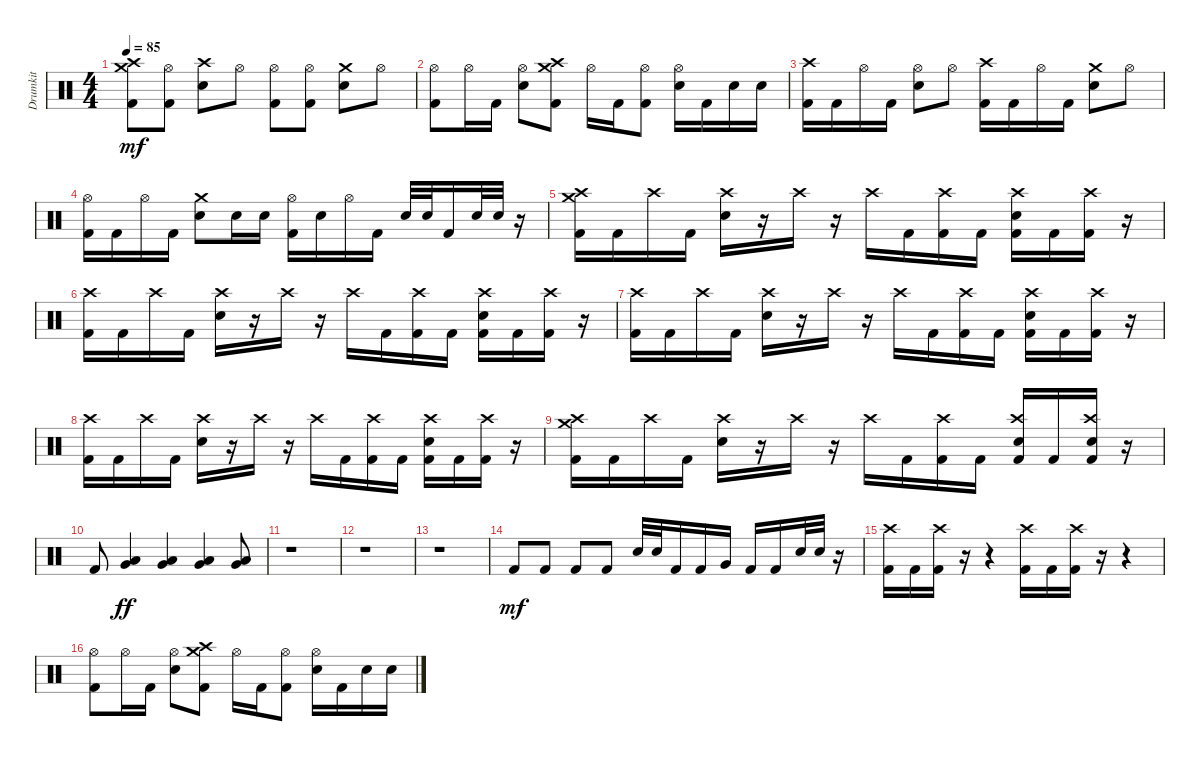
\track ("Drumkit" "Drumkit") {instrument percussion}
\staff {score}
\articulation defaults
\ts (4 4)
\tempo 85
\clef neutral
\ks c
("Kick (hit) 2" "Crash high (hit)" "Crash medium (hit)").8{dy mf} ("Kick (hit) 2" "Hi-Hat (open)").8 ("Snare (hit) 2" "Crash high (hit)").8 "Hi-Hat (open)".8 ("Kick (hit) 2" "Hi-Hat (open)").8 ("Kick (hit) 2" "Hi-Hat (open)").8 ("Snare (hit) 2" "Crash medium (hit)").8 "Hi-Hat (open)".8 |
("Kick (hit) 2" "Hi-Hat (open)").8 "Hi-Hat (open)".16 "Kick (hit) 2".16 ("Snare (hit) 2" "Hi-Hat (open)").8 ("Kick (hit) 2" "Crash high (hit)" "Crash medium (hit)").8 "Hi-Hat (open)".16 "Kick (hit) 2".16 ("Kick (hit) 2" "Hi-Hat (open)").8 ("Snare (hit) 2" "Hi-Hat (open)").16 "Kick (hit) 2".16 "Snare (hit) 2".16 "Snare (hit) 2".16 |
("Crash high (hit)" "Kick (hit) 2").16 "Kick (hit) 2".16 "Hi-Hat (open)".16 "Kick (hit) 2".16 ("Snare (hit) 2" "Hi-Hat (open)").8 "Hi-Hat (open)".8 ("Crash high (hit)" "Kick (hit) 2").16 "Kick (hit) 2".16 "Hi-Hat (open)".16 "Kick (hit) 2".16 ("Snare (hit) 2" "Crash medium (hit)").8 "Hi-Hat (open)".8 |
("Hi-Hat (open)" "Kick (hit) 2").16 "Kick (hit) 2".16 "Hi-Hat (open)".16 "Kick (hit) 2".16 ("Snare (hit) 2" "Crash medium (hit)").8 "Snare (hit) 2".16 "Snare (hit) 2".16 ("Kick (hit) 2" "Hi-Hat (open)").16 "Snare (hit) 2".16 "Hi-Hat (open)".16 "Kick (hit) 2".16 "Snare (hit) 2".32 "Snare (hit) 2".32 "Kick (hit) 2".16 "Snare (hit) 2".32 "Snare (hit) 2".32 r.16 |
("Kick (hit) 2" "Crash high (hit)" "Crash medium (hit)").16 "Kick (hit) 2".16 "Crash high (hit)".16 "Kick (hit) 2".16 ("Crash high (hit)" "Snare (hit) 2").16 r.16 "Crash high (hit)".16 r.16 "Crash high (hit)".16 "Kick (hit) 2".16 ("Kick (hit) 2" "Crash high (hit)").16 "Kick (hit) 2".16 ("Crash high (hit)" "Kick (hit) 2" "Snare (hit) 2").16 "Kick (hit) 2".16 ("Crash high (hit)" "Kick (hit) 2").16 r.16 |
("Kick (hit) 2" "Crash high (hit)").16 "Kick (hit) 2".16 "Crash high (hit)".16 "Kick (hit) 2".16 ("Crash high (hit)" "Snare (hit) 2").16 r.16 "Crash high (hit)".16 r.16 "Crash high (hit)".16 "Kick (hit) 2".16 ("Kick (hit) 2" "Crash high (hit)").16 "Kick (hit) 2".16 ("Crash high (hit)" "Kick (hit) 2" "Snare (hit) 2").16 "Kick (hit) 2".16 ("Crash high (hit)" "Kick (hit) 2").16 r.16 |
("Kick (hit) 2" "Crash high (hit)").16 "Kick (hit) 2".16 "Crash high (hit)".16 "Kick (hit) 2".16 ("Crash high (hit)" "Snare (hit) 2").16 r.16 "Crash high (hit)".16 r.16 "Crash high (hit)".16 "Kick (hit) 2".16 ("Kick (hit) 2" "Crash high (hit)").16 "Kick (hit) 2".16 ("Crash high (hit)" "Kick (hit) 2" "Snare (hit) 2").16 "Kick (hit) 2".16 ("Crash high (hit)" "Kick (hit) 2").16 r.16 |
("Kick (hit) 2" "Crash high (hit)").16 "Kick (hit) 2".16 "Crash high (hit)".16 "Kick (hit) 2".16 ("Crash high (hit)" "Snare (hit) 2").16 r.16 "Crash high (hit)".16 r.16 "Crash high (hit)".16 "Kick (hit) 2".16 ("Kick (hit) 2" "Crash high (hit)").16 "Kick (hit) 2".16 ("Crash high (hit)" "Kick (hit) 2" "Snare (hit) 2").16 "Kick (hit) 2".16 ("Crash high (hit)" "Kick (hit) 2").16 r.16 |
("Kick (hit) 2" "Crash high (hit)" "Crash medium (hit)").16 "Kick (hit) 2".16 "Crash high (hit)".16 "Kick (hit) 2".16 ("Crash high (hit)" "Snare (hit) 2").16 r.16 "Crash high (hit)".16 r.16 "Crash high (hit)".16 "Kick (hit) 2".16 ("Kick (hit) 2" "Crash high (hit)").16 "Kick (hit) 2".16 ("Crash high (hit)" "Kick (hit) 2" "Snare (hit) 2").16 "Kick (hit) 2".16 ("Crash high (hit)" "Kick (hit) 2" "Snare (hit) 2").16 r.16 |
"Kick (hit) 2".8 ("Low Tom (hit)" "Very Low Tom (hit)").4{dy ff} ("Low Tom (hit)" "Very Low Tom (hit)").4 ("Low Tom (hit)" "Very Low Tom (hit)").4 ("Low Tom (hit)" "Very Low Tom (hit)").8 |
r.1 |
r.1 |
r.1 |
"Kick (hit) 2".8{dy mf} "Kick (hit) 2".8 "Kick (hit) 2".8 "Kick (hit) 2".8 "Snare (hit) 2".32 "Snare (hit) 2".32 "Kick (hit) 2".16 "Kick (hit) 2".16 "Very Low Tom (hit)".16 "Kick (hit) 2".16 "Kick (hit) 2".16 "Snare (hit) 2".32 "Snare (hit) 2".32 r.16 |
("Kick (hit) 2" "Crash high (hit)").16 "Kick (hit) 2".16 ("Kick (hit) 2" "Crash high (hit)").16 r.16 r.4 ("Kick (hit) 2" "Crash high (hit)").16 "Kick (hit) 2".16 ("Kick (hit) 2" "Crash high (hit)").16 r.16 r.4 |
("Kick (hit) 2" "Hi-Hat (open)").8 "Hi-Hat (open)".16 "Kick (hit) 2".16 ("Snare (hit) 2" "Hi-Hat (open)").8 ("Kick (hit) 2" "Crash high (hit)" "Crash medium (hit)").8 "Hi-Hat (open)".16 "Kick (hit) 2".16 ("Kick (hit) 2" "Hi-Hat (open)").8 ("Snare (hit) 2" "Hi-Hat (open)").16 "Kick (hit) 2".16 "Snare (hit) 2".16 "Snare (hit) 2".16
